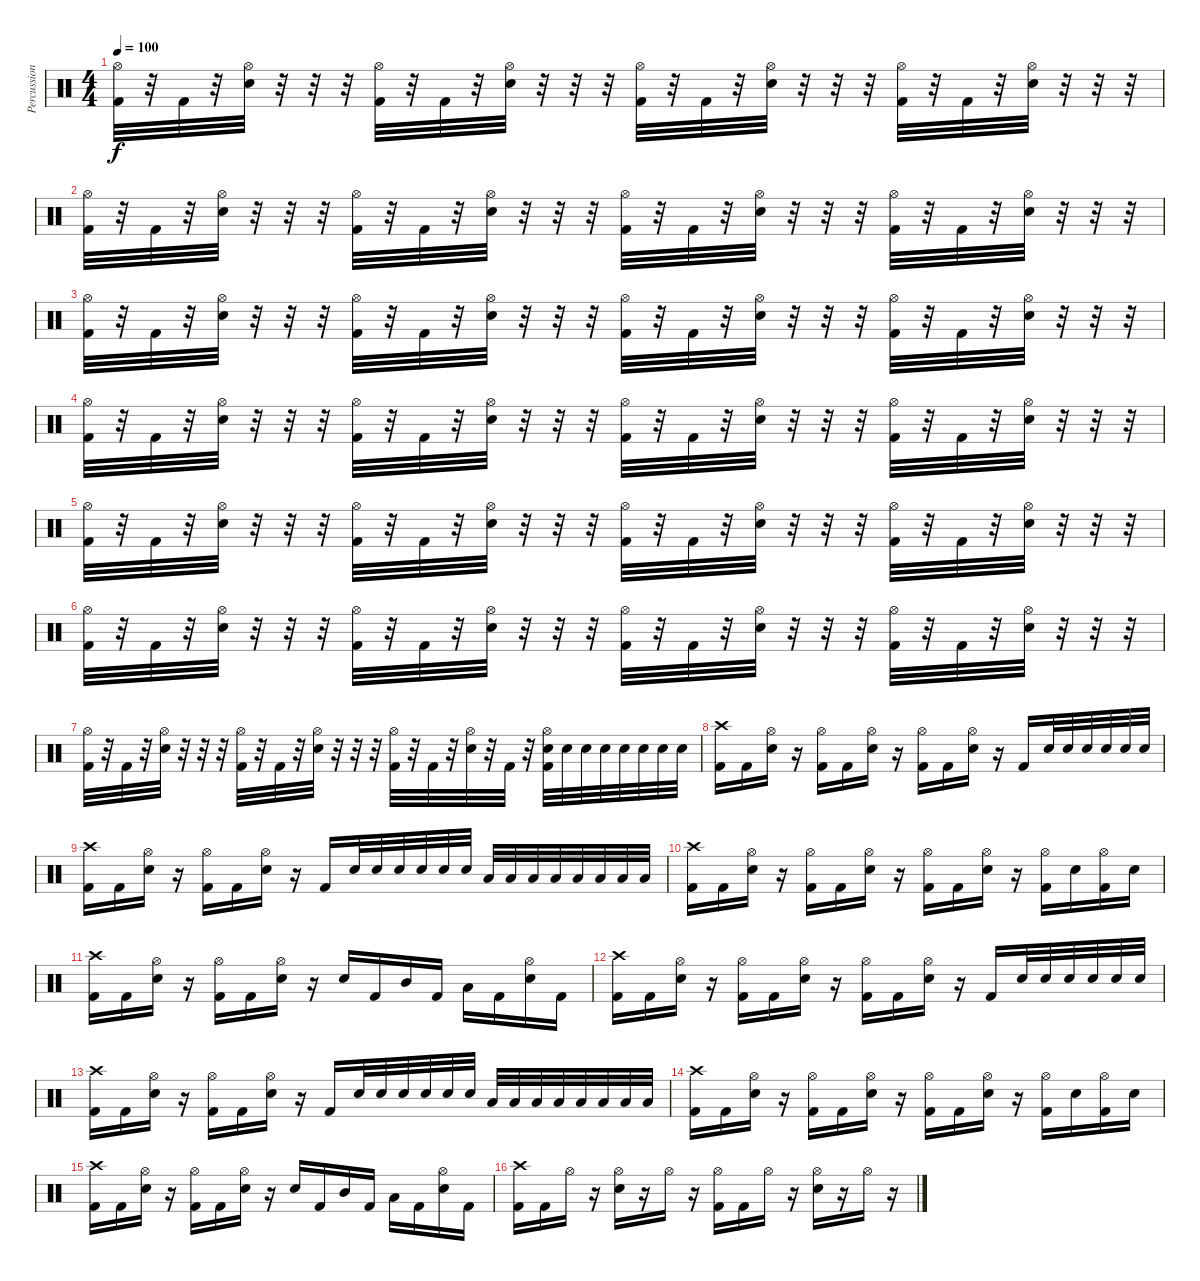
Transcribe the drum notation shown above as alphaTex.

\track ("Percussion" "Percussion") {instrument percussion}
\staff {score}
\articulation defaults
\ts (4 4)
\tempo 100
\clef neutral
\ks c
("Hi-Hat (open)" "Kick (hit) 2").32{dy f} r.32 "Kick (hit) 2".32 r.32 ("Hi-Hat (open)" "Snare (hit) 2").32 r.32 r.32 r.32 ("Hi-Hat (open)" "Kick (hit) 2").32 r.32 "Kick (hit) 2".32 r.32 ("Hi-Hat (open)" "Snare (hit) 2").32 r.32 r.32 r.32 ("Hi-Hat (open)" "Kick (hit) 2").32 r.32 "Kick (hit) 2".32 r.32 ("Hi-Hat (open)" "Snare (hit) 2").32 r.32 r.32 r.32 ("Hi-Hat (open)" "Kick (hit) 2").32 r.32 "Kick (hit) 2".32 r.32 ("Hi-Hat (open)" "Snare (hit) 2").32 r.32 r.32 r.32 |
("Hi-Hat (open)" "Kick (hit) 2").32 r.32 "Kick (hit) 2".32 r.32 ("Hi-Hat (open)" "Snare (hit) 2").32 r.32 r.32 r.32 ("Hi-Hat (open)" "Kick (hit) 2").32 r.32 "Kick (hit) 2".32 r.32 ("Hi-Hat (open)" "Snare (hit) 2").32 r.32 r.32 r.32 ("Hi-Hat (open)" "Kick (hit) 2").32 r.32 "Kick (hit) 2".32 r.32 ("Hi-Hat (open)" "Snare (hit) 2").32 r.32 r.32 r.32 ("Hi-Hat (open)" "Kick (hit) 2").32 r.32 "Kick (hit) 2".32 r.32 ("Hi-Hat (open)" "Snare (hit) 2").32 r.32 r.32 r.32 |
("Hi-Hat (open)" "Kick (hit) 2").32 r.32 "Kick (hit) 2".32 r.32 ("Hi-Hat (open)" "Snare (hit) 2").32 r.32 r.32 r.32 ("Hi-Hat (open)" "Kick (hit) 2").32 r.32 "Kick (hit) 2".32 r.32 ("Hi-Hat (open)" "Snare (hit) 2").32 r.32 r.32 r.32 ("Hi-Hat (open)" "Kick (hit) 2").32 r.32 "Kick (hit) 2".32 r.32 ("Hi-Hat (open)" "Snare (hit) 2").32 r.32 r.32 r.32 ("Hi-Hat (open)" "Kick (hit) 2").32 r.32 "Kick (hit) 2".32 r.32 ("Hi-Hat (open)" "Snare (hit) 2").32 r.32 r.32 r.32 |
("Hi-Hat (open)" "Kick (hit) 2").32 r.32 "Kick (hit) 2".32 r.32 ("Hi-Hat (open)" "Snare (hit) 2").32 r.32 r.32 r.32 ("Hi-Hat (open)" "Kick (hit) 2").32 r.32 "Kick (hit) 2".32 r.32 ("Hi-Hat (open)" "Snare (hit) 2").32 r.32 r.32 r.32 ("Hi-Hat (open)" "Kick (hit) 2").32 r.32 "Kick (hit) 2".32 r.32 ("Hi-Hat (open)" "Snare (hit) 2").32 r.32 r.32 r.32 ("Hi-Hat (open)" "Kick (hit) 2").32 r.32 "Kick (hit) 2".32 r.32 ("Hi-Hat (open)" "Snare (hit) 2").32 r.32 r.32 r.32 |
("Hi-Hat (open)" "Kick (hit) 2").32 r.32 "Kick (hit) 2".32 r.32 ("Hi-Hat (open)" "Snare (hit) 2").32 r.32 r.32 r.32 ("Hi-Hat (open)" "Kick (hit) 2").32 r.32 "Kick (hit) 2".32 r.32 ("Hi-Hat (open)" "Snare (hit) 2").32 r.32 r.32 r.32 ("Hi-Hat (open)" "Kick (hit) 2").32 r.32 "Kick (hit) 2".32 r.32 ("Hi-Hat (open)" "Snare (hit) 2").32 r.32 r.32 r.32 ("Hi-Hat (open)" "Kick (hit) 2").32 r.32 "Kick (hit) 2".32 r.32 ("Hi-Hat (open)" "Snare (hit) 2").32 r.32 r.32 r.32 |
("Hi-Hat (open)" "Kick (hit) 2").32 r.32 "Kick (hit) 2".32 r.32 ("Hi-Hat (open)" "Snare (hit) 2").32 r.32 r.32 r.32 ("Hi-Hat (open)" "Kick (hit) 2").32 r.32 "Kick (hit) 2".32 r.32 ("Hi-Hat (open)" "Snare (hit) 2").32 r.32 r.32 r.32 ("Hi-Hat (open)" "Kick (hit) 2").32 r.32 "Kick (hit) 2".32 r.32 ("Hi-Hat (open)" "Snare (hit) 2").32 r.32 r.32 r.32 ("Hi-Hat (open)" "Kick (hit) 2").32 r.32 "Kick (hit) 2".32 r.32 ("Hi-Hat (open)" "Snare (hit) 2").32 r.32 r.32 r.32 |
("Hi-Hat (open)" "Kick (hit) 2").32 r.32 "Kick (hit) 2".32 r.32 ("Hi-Hat (open)" "Snare (hit) 2").32 r.32 r.32 r.32 ("Hi-Hat (open)" "Kick (hit) 2").32 r.32 "Kick (hit) 2".32 r.32 ("Hi-Hat (open)" "Snare (hit) 2").32 r.32 r.32 r.32 ("Hi-Hat (open)" "Kick (hit) 2").32 r.32 "Kick (hit) 2".32 r.32 ("Hi-Hat (open)" "Snare (hit) 2").32 r.32 "Kick (hit) 2".32 r.32 ("Hi-Hat (open)" "Snare (hit) 2" "Kick (hit) 2").32 "Snare (hit) 2".32 "Snare (hit) 2".32 "Snare (hit) 2".32 "Snare (hit) 2".32 "Snare (hit) 2".32 "Snare (hit) 2".32 "Snare (hit) 2".32 |
("Crash high (hit)" "Kick (hit) 2").16 "Kick (hit) 2".16 ("Hi-Hat (open)" "Snare (hit) 2").16 r.16 ("Hi-Hat (open)" "Kick (hit) 2").16 "Kick (hit) 2".16 ("Hi-Hat (open)" "Snare (hit) 2").16 r.16 ("Hi-Hat (open)" "Kick (hit) 2").16 "Kick (hit) 2".16 ("Hi-Hat (open)" "Snare (hit) 2").16 r.16 "Kick (hit) 2".16 "Snare (hit) 2".32 "Snare (hit) 2".32 "Snare (hit) 2".32 "Snare (hit) 2".32 "Snare (hit) 2".32 "Snare (hit) 2".32 |
("Crash high (hit)" "Kick (hit) 2").16 "Kick (hit) 2".16 ("Hi-Hat (open)" "Snare (hit) 2").16 r.16 ("Hi-Hat (open)" "Kick (hit) 2").16 "Kick (hit) 2".16 ("Hi-Hat (open)" "Snare (hit) 2").16 r.16 "Kick (hit) 2".16 "Snare (hit) 2".32 "Snare (hit) 2".32 "Snare (hit) 2".32 "Snare (hit) 2".32 "Snare (hit) 2".32 "Snare (hit) 2".32 "Low Tom (hit)".32 "Low Tom (hit)".32 "Low Tom (hit)".32 "Low Tom (hit)".32 "Low Floor Tom (hit)".32 "Low Floor Tom (hit)".32 "Low Floor Tom (hit)".32 "Low Floor Tom (hit)".32 |
("Crash high (hit)" "Kick (hit) 2").16 "Kick (hit) 2".16 ("Hi-Hat (open)" "Snare (hit) 2").16 r.16 ("Hi-Hat (open)" "Kick (hit) 2").16 "Kick (hit) 2".16 ("Hi-Hat (open)" "Snare (hit) 2").16 r.16 ("Hi-Hat (open)" "Kick (hit) 2").16 "Kick (hit) 2".16 ("Hi-Hat (open)" "Snare (hit) 2").16 r.16 ("Hi-Hat (open)" "Kick (hit) 2").16 "Snare (hit) 2".16 ("Hi-Hat (open)" "Kick (hit) 2").16 "Snare (hit) 2".16 |
("Crash high (hit)" "Kick (hit) 2").16 "Kick (hit) 2".16 ("Hi-Hat (open)" "Snare (hit) 2").16 r.16 ("Hi-Hat (open)" "Kick (hit) 2").16 "Kick (hit) 2".16 ("Hi-Hat (open)" "Snare (hit) 2").16 r.16 "Snare (hit) 2".16 "Kick (hit) 2".16 "Mid Tom (hit)".16 "Kick (hit) 2".16 "Low Floor Tom (hit)".16 "Kick (hit) 2".16 ("Hi-Hat (open)" "Snare (hit) 2").16 "Kick (hit) 2".16 |
("Crash high (hit)" "Kick (hit) 2").16 "Kick (hit) 2".16 ("Hi-Hat (open)" "Snare (hit) 2").16 r.16 ("Hi-Hat (open)" "Kick (hit) 2").16 "Kick (hit) 2".16 ("Hi-Hat (open)" "Snare (hit) 2").16 r.16 ("Hi-Hat (open)" "Kick (hit) 2").16 "Kick (hit) 2".16 ("Hi-Hat (open)" "Snare (hit) 2").16 r.16 "Kick (hit) 2".16 "Snare (hit) 2".32 "Snare (hit) 2".32 "Snare (hit) 2".32 "Snare (hit) 2".32 "Snare (hit) 2".32 "Snare (hit) 2".32 |
("Crash high (hit)" "Kick (hit) 2").16 "Kick (hit) 2".16 ("Hi-Hat (open)" "Snare (hit) 2").16 r.16 ("Hi-Hat (open)" "Kick (hit) 2").16 "Kick (hit) 2".16 ("Hi-Hat (open)" "Snare (hit) 2").16 r.16 "Kick (hit) 2".16 "Snare (hit) 2".32 "Snare (hit) 2".32 "Snare (hit) 2".32 "Snare (hit) 2".32 "Snare (hit) 2".32 "Snare (hit) 2".32 "Low Tom (hit)".32 "Low Tom (hit)".32 "Low Tom (hit)".32 "Low Tom (hit)".32 "Low Floor Tom (hit)".32 "Low Floor Tom (hit)".32 "Low Floor Tom (hit)".32 "Low Floor Tom (hit)".32 |
("Crash high (hit)" "Kick (hit) 2").16 "Kick (hit) 2".16 ("Hi-Hat (open)" "Snare (hit) 2").16 r.16 ("Hi-Hat (open)" "Kick (hit) 2").16 "Kick (hit) 2".16 ("Hi-Hat (open)" "Snare (hit) 2").16 r.16 ("Hi-Hat (open)" "Kick (hit) 2").16 "Kick (hit) 2".16 ("Hi-Hat (open)" "Snare (hit) 2").16 r.16 ("Hi-Hat (open)" "Kick (hit) 2").16 "Snare (hit) 2".16 ("Hi-Hat (open)" "Kick (hit) 2").16 "Snare (hit) 2".16 |
("Crash high (hit)" "Kick (hit) 2").16 "Kick (hit) 2".16 ("Hi-Hat (open)" "Snare (hit) 2").16 r.16 ("Hi-Hat (open)" "Kick (hit) 2").16 "Kick (hit) 2".16 ("Hi-Hat (open)" "Snare (hit) 2").16 r.16 "Snare (hit) 2".16 "Kick (hit) 2".16 "Mid Tom (hit)".16 "Kick (hit) 2".16 "Low Floor Tom (hit)".16 "Kick (hit) 2".16 ("Hi-Hat (open)" "Snare (hit) 2").16 "Kick (hit) 2".16 |
("Crash high (hit)" "Kick (hit) 2").16 "Kick (hit) 2".16 "Hi-Hat (open)".16 r.16 ("Hi-Hat (open)" "Snare (hit) 2").16 r.16 "Hi-Hat (open)".16 r.16 ("Hi-Hat (open)" "Kick (hit) 2").16 "Kick (hit) 2".16 "Hi-Hat (open)".16 r.16 ("Hi-Hat (open)" "Snare (hit) 2").16 r.16 "Hi-Hat (open)".16 r.16
